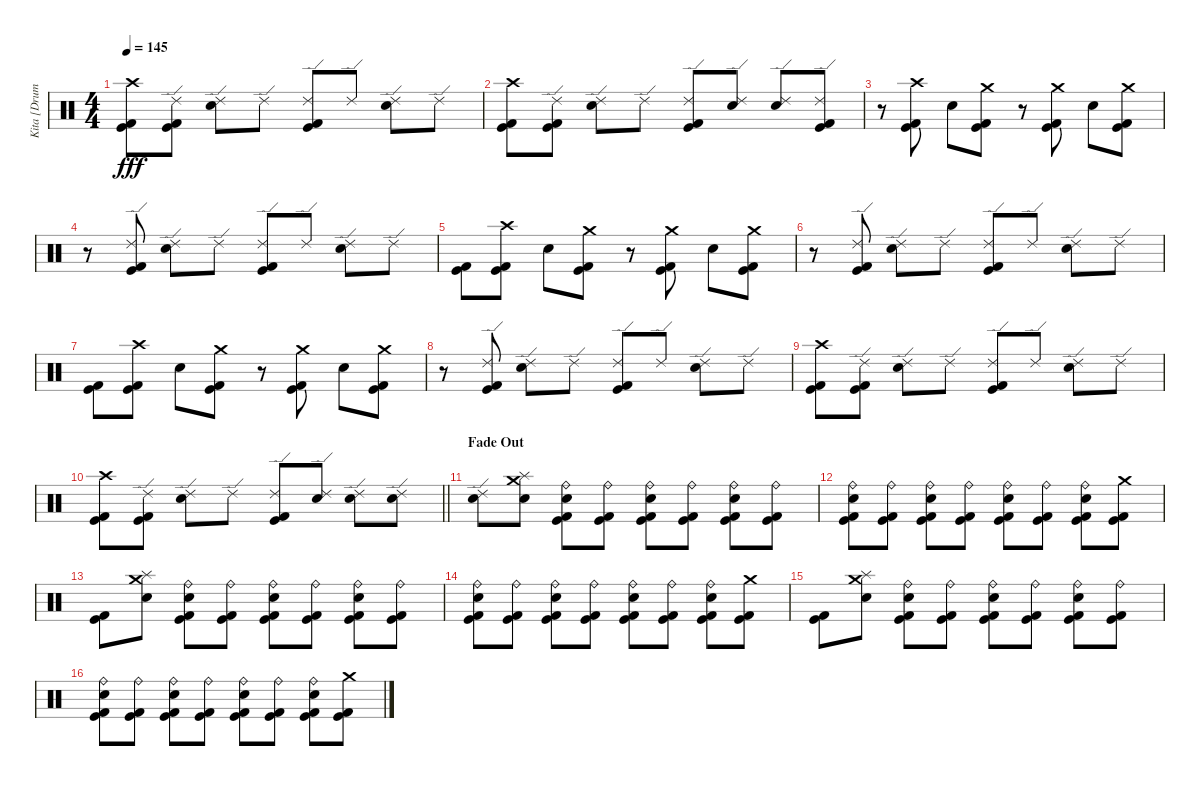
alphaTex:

\track ("Kita [Drums]" "Kita [Drum") {instrument percussion}
\staff {score}
\articulation defaults
\ts (4 4)
\tempo 145
\clef neutral
\ks c
("Crash high (hit)" "Kick (hit)" "Kick (hit) 2").8{dy fff} ("Ride (edge) 2" "Kick (hit)" "Kick (hit) 2").8 ("Ride (edge) 2" "Electric Snare (hit)").8 "Ride (edge) 2".8 ("Ride (edge) 2" "Kick (hit)" "Kick (hit) 2").8 "Ride (edge) 2".8 ("Ride (edge) 2" "Electric Snare (hit)").8 "Ride (edge) 2".8 |
("Crash high (hit)" "Kick (hit)" "Kick (hit) 2").8 ("Ride (edge) 2" "Kick (hit)" "Kick (hit) 2").8 ("Ride (edge) 2" "Electric Snare (hit)").8 "Ride (edge) 2".8 ("Ride (edge) 2" "Kick (hit)" "Kick (hit) 2").8 ("Ride (edge) 2" "Electric Snare (hit)").8 ("Ride (edge) 2" "Electric Snare (hit)").8 ("Ride (edge) 2" "Kick (hit)" "Kick (hit) 2").8 |
r.8 ("Crash high (hit)" "Kick (hit)" "Kick (hit) 2").8 "Electric Snare (hit)".8 ("Crash medium (hit)" "Kick (hit)" "Kick (hit) 2").8 r.8 ("Crash medium (hit)" "Kick (hit)" "Kick (hit) 2").8 "Electric Snare (hit)".8 ("Crash medium (hit)" "Kick (hit)" "Kick (hit) 2").8 |
r.8 ("Ride (edge) 2" "Kick (hit)" "Kick (hit) 2").8 ("Ride (edge) 2" "Electric Snare (hit)").8 "Ride (edge) 2".8 ("Ride (edge) 2" "Kick (hit)" "Kick (hit) 2").8 "Ride (edge) 2".8 ("Ride (edge) 2" "Electric Snare (hit)").8 "Ride (edge) 2".8 |
("Kick (hit)" "Kick (hit) 2").8 ("Crash high (hit)" "Kick (hit)" "Kick (hit) 2").8 "Electric Snare (hit)".8 ("Crash medium (hit)" "Kick (hit)" "Kick (hit) 2").8 r.8 ("Crash medium (hit)" "Kick (hit)" "Kick (hit) 2").8 "Electric Snare (hit)".8 ("Crash medium (hit)" "Kick (hit)" "Kick (hit) 2").8 |
r.8 ("Ride (edge) 2" "Kick (hit)" "Kick (hit) 2").8 ("Ride (edge) 2" "Electric Snare (hit)").8 "Ride (edge) 2".8 ("Ride (edge) 2" "Kick (hit)" "Kick (hit) 2").8 "Ride (edge) 2".8 ("Ride (edge) 2" "Electric Snare (hit)").8 "Ride (edge) 2".8 |
("Kick (hit)" "Kick (hit) 2").8 ("Crash high (hit)" "Kick (hit)" "Kick (hit) 2").8 "Electric Snare (hit)".8 ("Crash medium (hit)" "Kick (hit)" "Kick (hit) 2").8 r.8 ("Crash medium (hit)" "Kick (hit)" "Kick (hit) 2").8 "Electric Snare (hit)".8 ("Crash medium (hit)" "Kick (hit)" "Kick (hit) 2").8 |
r.8 ("Ride (edge) 2" "Kick (hit)" "Kick (hit) 2").8 ("Ride (edge) 2" "Electric Snare (hit)").8 "Ride (edge) 2".8 ("Ride (edge) 2" "Kick (hit)" "Kick (hit) 2").8 "Ride (edge) 2".8 ("Ride (edge) 2" "Electric Snare (hit)").8 "Ride (edge) 2".8 |
("Crash high (hit)" "Kick (hit)" "Kick (hit) 2").8 ("Ride (edge) 2" "Kick (hit)" "Kick (hit) 2").8 ("Ride (edge) 2" "Electric Snare (hit)").8 "Ride (edge) 2".8 ("Ride (edge) 2" "Kick (hit)" "Kick (hit) 2").8 "Ride (edge) 2".8 ("Ride (edge) 2" "Electric Snare (hit)").8 "Ride (edge) 2".8 |
\barLineRight lightlight
("Crash high (hit)" "Kick (hit)" "Kick (hit) 2").8 ("Ride (edge) 2" "Kick (hit)" "Kick (hit) 2").8 ("Ride (edge) 2" "Electric Snare (hit)").8 "Ride (edge) 2".8 ("Ride (edge) 2" "Kick (hit)" "Kick (hit) 2").8 ("Ride (edge) 2" "Electric Snare (hit)").8 ("Ride (edge) 2" "Electric Snare (hit)").8 ("Ride (edge) 2" "Electric Snare (hit)").8 |
\section ("" "Fade Out")
("Ride (edge) 2" "Electric Snare (hit)").8 ("Crash medium (hit)" "Splash (hit)" "Electric Snare (hit)").8 ("Ride (bell)" "Electric Snare (hit)" "Kick (hit)" "Kick (hit) 2").8 ("Ride (bell)" "Kick (hit)" "Kick (hit) 2").8 ("Ride (bell)" "Electric Snare (hit)" "Kick (hit)" "Kick (hit) 2").8 ("Ride (bell)" "Kick (hit)" "Kick (hit) 2").8 ("Ride (bell)" "Electric Snare (hit)" "Kick (hit)" "Kick (hit) 2").8 ("Ride (bell)" "Kick (hit)" "Kick (hit) 2").8 |
("Ride (bell)" "Electric Snare (hit)" "Kick (hit)" "Kick (hit) 2").8 ("Ride (bell)" "Kick (hit)" "Kick (hit) 2").8 ("Ride (bell)" "Electric Snare (hit)" "Kick (hit)" "Kick (hit) 2").8 ("Ride (bell)" "Kick (hit)" "Kick (hit) 2").8 ("Ride (bell)" "Electric Snare (hit)" "Kick (hit)" "Kick (hit) 2").8 ("Ride (bell)" "Kick (hit)" "Kick (hit) 2").8 ("Ride (bell)" "Electric Snare (hit)" "Kick (hit)" "Kick (hit) 2").8 ("Crash medium (hit)" "Kick (hit)" "Kick (hit) 2").8 |
("Kick (hit)" "Kick (hit) 2").8 ("Crash medium (hit)" "Splash (hit)" "Electric Snare (hit)").8 ("Ride (bell)" "Electric Snare (hit)" "Kick (hit)" "Kick (hit) 2").8 ("Ride (bell)" "Kick (hit)" "Kick (hit) 2").8 ("Ride (bell)" "Electric Snare (hit)" "Kick (hit)" "Kick (hit) 2").8 ("Ride (bell)" "Kick (hit)" "Kick (hit) 2").8 ("Ride (bell)" "Electric Snare (hit)" "Kick (hit)" "Kick (hit) 2").8 ("Ride (bell)" "Kick (hit)" "Kick (hit) 2").8 |
("Ride (bell)" "Electric Snare (hit)" "Kick (hit)" "Kick (hit) 2").8 ("Ride (bell)" "Kick (hit)" "Kick (hit) 2").8 ("Ride (bell)" "Electric Snare (hit)" "Kick (hit)" "Kick (hit) 2").8 ("Ride (bell)" "Kick (hit)" "Kick (hit) 2").8 ("Ride (bell)" "Electric Snare (hit)" "Kick (hit)" "Kick (hit) 2").8 ("Ride (bell)" "Kick (hit)" "Kick (hit) 2").8 ("Ride (bell)" "Electric Snare (hit)" "Kick (hit)" "Kick (hit) 2").8 ("Crash medium (hit)" "Kick (hit)" "Kick (hit) 2").8 |
("Kick (hit)" "Kick (hit) 2").8 ("Crash medium (hit)" "Splash (hit)" "Electric Snare (hit)").8 ("Ride (bell)" "Electric Snare (hit)" "Kick (hit)" "Kick (hit) 2").8 ("Ride (bell)" "Kick (hit)" "Kick (hit) 2").8 ("Ride (bell)" "Electric Snare (hit)" "Kick (hit)" "Kick (hit) 2").8 ("Ride (bell)" "Kick (hit)" "Kick (hit) 2").8 ("Ride (bell)" "Electric Snare (hit)" "Kick (hit)" "Kick (hit) 2").8 ("Ride (bell)" "Kick (hit)" "Kick (hit) 2").8 |
("Ride (bell)" "Electric Snare (hit)" "Kick (hit)" "Kick (hit) 2").8 ("Ride (bell)" "Kick (hit)" "Kick (hit) 2").8 ("Ride (bell)" "Electric Snare (hit)" "Kick (hit)" "Kick (hit) 2").8 ("Ride (bell)" "Kick (hit)" "Kick (hit) 2").8 ("Ride (bell)" "Electric Snare (hit)" "Kick (hit)" "Kick (hit) 2").8 ("Ride (bell)" "Kick (hit)" "Kick (hit) 2").8 ("Ride (bell)" "Electric Snare (hit)" "Kick (hit)" "Kick (hit) 2").8 ("Crash medium (hit)" "Kick (hit)" "Kick (hit) 2").8
